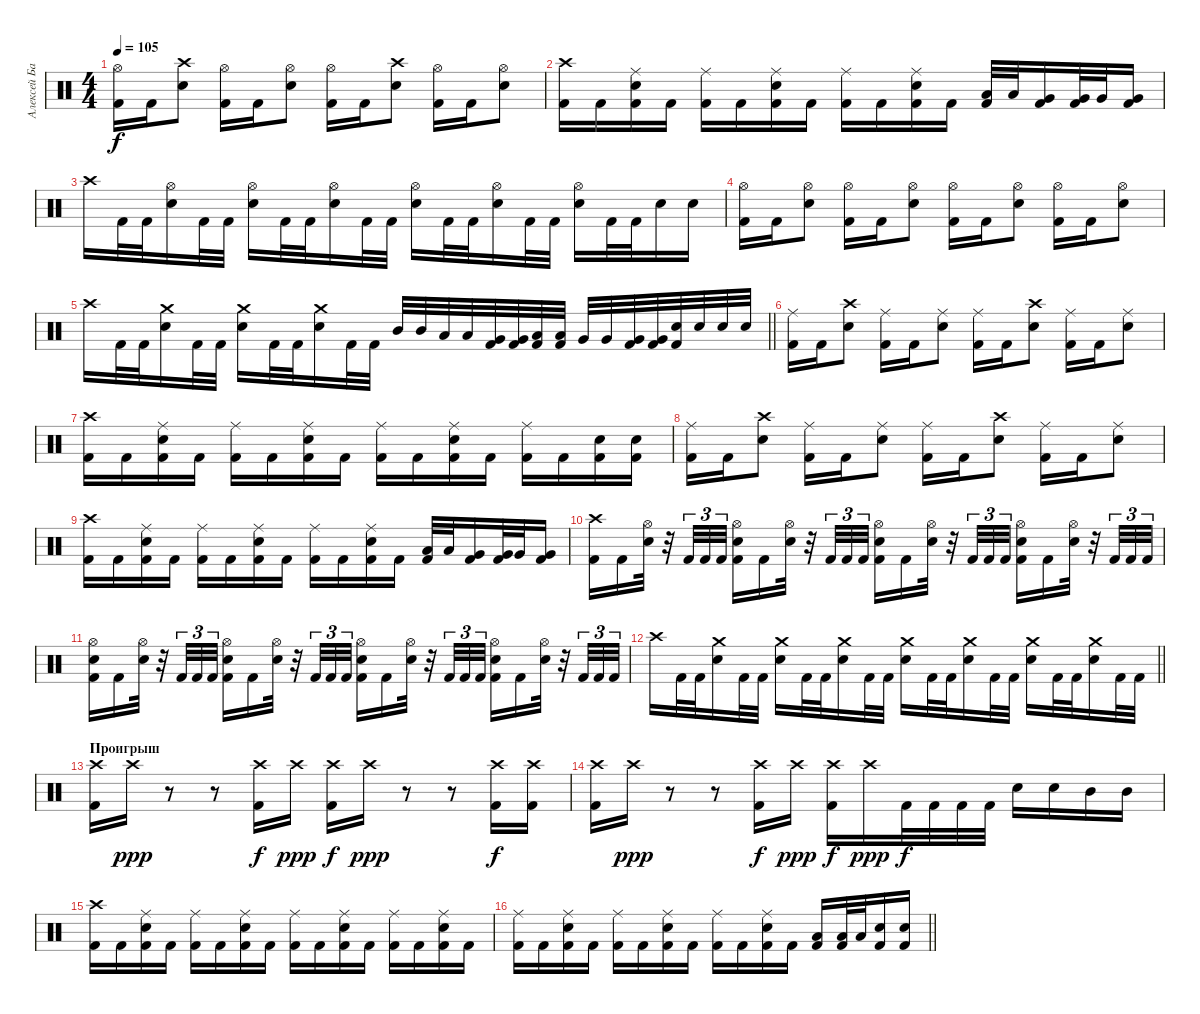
\track ("Алексей Барзилович" "Алексей Ба") {instrument percussion}
\staff {score}
\articulation defaults
\ts (4 4)
\tempo 105
\clef neutral
\ks c
("Hi-Hat (open)" "Kick (hit) 2").16{dy f} "Kick (hit) 2".16 ("Crash high (hit)" "Electric Snare (hit)").8 ("Hi-Hat (open)" "Kick (hit) 2").16 "Kick (hit) 2".16 ("Hi-Hat (open)" "Electric Snare (hit)").8 ("Hi-Hat (open)" "Kick (hit) 2").16 "Kick (hit) 2".16 ("Crash high (hit)" "Electric Snare (hit)").8 ("Hi-Hat (open)" "Kick (hit) 2").16 "Kick (hit) 2".16 ("Hi-Hat (open)" "Electric Snare (hit)").8 |
("Crash high (hit)" "Kick (hit) 2").16 "Kick (hit) 2".16 ("Ride (middle)" "Electric Snare (hit)" "Kick (hit) 2").16 "Kick (hit) 2".16 ("Ride (middle)" "Kick (hit) 2").16 "Kick (hit) 2".16 ("Ride (middle)" "Electric Snare (hit)" "Kick (hit) 2").16 "Kick (hit) 2".16 ("Ride (middle)" "Kick (hit) 2").16 "Kick (hit) 2".16 ("Ride (middle)" "Electric Snare (hit)" "Kick (hit) 2").16 "Kick (hit) 2".16 ("Low Tom (hit)" "Kick (hit) 2").32 "Low Tom (hit)".32 ("Very Low Tom (hit)" "Kick (hit) 2").16 ("Very Low Tom (hit)" "Kick (hit) 2").32 "Very Low Tom (hit)".32 ("Very Low Tom (hit)" "Kick (hit) 2").16 |
"Crash high (hit)".16 "Kick (hit) 2".32 "Kick (hit) 2".32 ("Hi-Hat (open)" "Electric Snare (hit)").16 "Kick (hit) 2".32 "Kick (hit) 2".32 ("Hi-Hat (open)" "Electric Snare (hit)").16 "Kick (hit) 2".32 "Kick (hit) 2".32 ("Hi-Hat (open)" "Electric Snare (hit)").16 "Kick (hit) 2".32 "Kick (hit) 2".32 ("Hi-Hat (open)" "Electric Snare (hit)").16 "Kick (hit) 2".32 "Kick (hit) 2".32 ("Hi-Hat (open)" "Electric Snare (hit)").16 "Kick (hit) 2".32 "Kick (hit) 2".32 ("Hi-Hat (open)" "Electric Snare (hit)").16 "Kick (hit) 2".32 "Kick (hit) 2".32 "Electric Snare (hit)".16 "Electric Snare (hit)".16 |
("Hi-Hat (open)" "Kick (hit) 2").16 "Kick (hit) 2".16 ("Hi-Hat (open)" "Electric Snare (hit)").8 ("Hi-Hat (open)" "Kick (hit) 2").16 "Kick (hit) 2".16 ("Hi-Hat (open)" "Electric Snare (hit)").8 ("Hi-Hat (open)" "Kick (hit) 2").16 "Kick (hit) 2".16 ("Hi-Hat (open)" "Electric Snare (hit)").8 ("Hi-Hat (open)" "Kick (hit) 2").16 "Kick (hit) 2".16 ("Hi-Hat (open)" "Electric Snare (hit)").8 |
\barLineRight lightlight "Crash high (hit)".16 "Kick (hit) 2".32 "Kick (hit) 2".32
("Crash medium (hit)" "Electric Snare (hit)").16 "Kick (hit) 2".32 "Kick (hit) 2".32 ("Crash medium (hit)" "Electric Snare (hit)").16 "Kick (hit) 2".32 "Kick (hit) 2".32 ("Crash medium (hit)" "Electric Snare (hit)").16 "Kick (hit) 2".32 "Kick (hit) 2".32 "Mid Tom (hit)".32 "Mid Tom (hit)".32 "Low Tom (hit)".32 "Low Tom (hit)".32 ("Very Low Tom (hit)" "Kick (hit) 2").32 ("Very Low Tom (hit)" "Kick (hit) 2").32 ("Low Tom (hit)" "Kick (hit) 2").32 ("Low Tom (hit)" "Kick (hit) 2").32 "Very Low Tom (hit)".32 "Very Low Tom (hit)".32 ("Very Low Tom (hit)" "Kick (hit) 2").32 ("Very Low Tom (hit)" "Kick (hit) 2").32 ("Electric Snare (hit)" "Kick (hit) 2").32 "Electric Snare (hit)".32 "Electric Snare (hit)".32 "Electric Snare (hit)".32 |
("Ride (middle)" "Kick (hit) 2").16 "Kick (hit) 2".16 ("Crash high (hit)" "Electric Snare (hit)").8 ("Ride (middle)" "Kick (hit) 2").16 "Kick (hit) 2".16 ("Ride (middle)" "Electric Snare (hit)").8 ("Ride (middle)" "Kick (hit) 2").16 "Kick (hit) 2".16 ("Crash high (hit)" "Electric Snare (hit)").8 ("Ride (middle)" "Kick (hit) 2").16 "Kick (hit) 2".16 ("Ride (middle)" "Electric Snare (hit)").8 |
("Crash high (hit)" "Kick (hit) 2").16 "Kick (hit) 2".16 ("Ride (middle)" "Electric Snare (hit)" "Kick (hit) 2").16 "Kick (hit) 2".16 ("Ride (middle)" "Kick (hit) 2").16 "Kick (hit) 2".16 ("Ride (middle)" "Electric Snare (hit)" "Kick (hit) 2").16 "Kick (hit) 2".16 ("Ride (middle)" "Kick (hit) 2").16 "Kick (hit) 2".16 ("Ride (middle)" "Electric Snare (hit)" "Kick (hit) 2").16 "Kick (hit) 2".16 ("Ride (middle)" "Kick (hit) 2").16 "Kick (hit) 2".16 ("Electric Snare (hit)" "Kick (hit) 2").16 ("Electric Snare (hit)" "Kick (hit) 2").16 |
("Ride (middle)" "Kick (hit) 2").16 "Kick (hit) 2".16 ("Crash high (hit)" "Electric Snare (hit)").8 ("Ride (middle)" "Kick (hit) 2").16 "Kick (hit) 2".16 ("Ride (middle)" "Electric Snare (hit)").8 ("Ride (middle)" "Kick (hit) 2").16 "Kick (hit) 2".16 ("Crash high (hit)" "Electric Snare (hit)").8 ("Ride (middle)" "Kick (hit) 2").16 "Kick (hit) 2".16 ("Ride (middle)" "Electric Snare (hit)").8 |
("Crash high (hit)" "Kick (hit) 2").16 "Kick (hit) 2".16 ("Ride (middle)" "Electric Snare (hit)" "Kick (hit) 2").16 "Kick (hit) 2".16 ("Ride (middle)" "Kick (hit) 2").16 "Kick (hit) 2".16 ("Ride (middle)" "Electric Snare (hit)" "Kick (hit) 2").16 "Kick (hit) 2".16 ("Ride (middle)" "Kick (hit) 2").16 "Kick (hit) 2".16 ("Ride (middle)" "Electric Snare (hit)" "Kick (hit) 2").16 "Kick (hit) 2".16 ("Low Tom (hit)" "Kick (hit) 2").32 "Low Tom (hit)".32 ("Very Low Tom (hit)" "Kick (hit) 2").16 ("Very Low Tom (hit)" "Kick (hit) 2").32 "Very Low Tom (hit)".32 ("Very Low Tom (hit)" "Kick (hit) 2").16 |
("Crash high (hit)" "Kick (hit) 2").16 "Kick (hit) 2".16 ("Hi-Hat (open)" "Electric Snare (hit)").32 r.32 "Kick (hit) 2".32{tu (3 2)} "Kick (hit) 2".32{tu (3 2)} "Kick (hit) 2".32{tu (3 2)} ("Hi-Hat (open)" "Electric Snare (hit)" "Kick (hit) 2").16 "Kick (hit) 2".16 ("Hi-Hat (open)" "Electric Snare (hit)").32 r.32 "Kick (hit) 2".32{tu (3 2)} "Kick (hit) 2".32{tu (3 2)} "Kick (hit) 2".32{tu (3 2)} ("Hi-Hat (open)" "Electric Snare (hit)" "Kick (hit) 2").16 "Kick (hit) 2".16 ("Hi-Hat (open)" "Electric Snare (hit)").32 r.32 "Kick (hit) 2".32{tu (3 2)} "Kick (hit) 2".32{tu (3 2)} "Kick (hit) 2".32{tu (3 2)} ("Hi-Hat (open)" "Electric Snare (hit)" "Kick (hit) 2").16 "Kick (hit) 2".16 ("Hi-Hat (open)" "Electric Snare (hit)").32 r.32 "Kick (hit) 2".32{tu (3 2)} "Kick (hit) 2".32{tu (3 2)} "Kick (hit) 2".32{tu (3 2)} |
("Hi-Hat (open)" "Electric Snare (hit)" "Kick (hit) 2").16 "Kick (hit) 2".16 ("Hi-Hat (open)" "Electric Snare (hit)").32 r.32 "Kick (hit) 2".32{tu (3 2)} "Kick (hit) 2".32{tu (3 2)} "Kick (hit) 2".32{tu (3 2)} ("Hi-Hat (open)" "Electric Snare (hit)" "Kick (hit) 2").16 "Kick (hit) 2".16 ("Hi-Hat (open)" "Electric Snare (hit)").32 r.32 "Kick (hit) 2".32{tu (3 2)} "Kick (hit) 2".32{tu (3 2)} "Kick (hit) 2".32{tu (3 2)} ("Hi-Hat (open)" "Electric Snare (hit)" "Kick (hit) 2").16 "Kick (hit) 2".16 ("Hi-Hat (open)" "Electric Snare (hit)").32 r.32 "Kick (hit) 2".32{tu (3 2)} "Kick (hit) 2".32{tu (3 2)} "Kick (hit) 2".32{tu (3 2)} ("Hi-Hat (open)" "Electric Snare (hit)" "Kick (hit) 2").16 "Kick (hit) 2".16 ("Hi-Hat (open)" "Electric Snare (hit)").32 r.32 "Kick (hit) 2".32{tu (3 2)} "Kick (hit) 2".32{tu (3 2)} "Kick (hit) 2".32{tu (3 2)} |
\barLineRight lightlight "Crash high (hit)".16 "Kick (hit) 2".32 "Kick (hit) 2".32
("Crash medium (hit)" "Electric Snare (hit)").16 "Kick (hit) 2".32 "Kick (hit) 2".32 ("Crash medium (hit)" "Electric Snare (hit)").16 "Kick (hit) 2".32 "Kick (hit) 2".32 ("Crash medium (hit)" "Electric Snare (hit)").16 "Kick (hit) 2".32 "Kick (hit) 2".32 ("Crash medium (hit)" "Electric Snare (hit)").16 "Kick (hit) 2".32 "Kick (hit) 2".32 ("Crash medium (hit)" "Electric Snare (hit)").16 "Kick (hit) 2".32 "Kick (hit) 2".32 ("Crash medium (hit)" "Electric Snare (hit)").16 "Kick (hit) 2".32 "Kick (hit) 2".32 ("Crash medium (hit)" "Electric Snare (hit)").16 "Kick (hit) 2".32 "Kick (hit) 2".32 |
\section ("" "Проигрыш")
("Crash high (hit)" "Kick (hit) 2").16 "Crash high (hit)".16{dy ppp} r.8 r.8 ("Crash high (hit)" "Kick (hit) 2").16{dy f} "Crash high (hit)".16{dy ppp} ("Crash high (hit)" "Kick (hit) 2").16{dy f} "Crash high (hit)".16{dy ppp} r.8 r.8 ("Crash high (hit)" "Kick (hit) 2").16{dy f} ("Crash high (hit)" "Kick (hit) 2").16 |
("Crash high (hit)" "Kick (hit) 2").16 "Crash high (hit)".16{dy ppp} r.8 r.8 ("Crash high (hit)" "Kick (hit) 2").16{dy f} "Crash high (hit)".16{dy ppp} ("Crash high (hit)" "Kick (hit) 2").16{dy f} "Crash high (hit)".16{dy ppp} "Kick (hit) 2".32{dy f} "Kick (hit) 2".32 "Kick (hit) 2".32 "Kick (hit) 2".32 "Electric Snare (hit)".16 "Electric Snare (hit)".16 "Mid Tom (hit)".16 "Mid Tom (hit)".16 |
("Crash high (hit)" "Kick (hit) 2").16 "Kick (hit) 2".16 ("Ride (middle)" "Electric Snare (hit)" "Kick (hit) 2").16 "Kick (hit) 2".16 ("Ride (middle)" "Kick (hit) 2").16 "Kick (hit) 2".16 ("Ride (middle)" "Electric Snare (hit)" "Kick (hit) 2").16 "Kick (hit) 2".16 ("Ride (middle)" "Kick (hit) 2").16 "Kick (hit) 2".16 ("Ride (middle)" "Electric Snare (hit)" "Kick (hit) 2").16 "Kick (hit) 2".16 ("Ride (middle)" "Kick (hit) 2").16 "Kick (hit) 2".16 ("Ride (middle)" "Electric Snare (hit)" "Kick (hit) 2").16 "Kick (hit) 2".16 |
\barLineRight lightlight
("Ride (middle)" "Kick (hit) 2").16 "Kick (hit) 2".16 ("Ride (middle)" "Electric Snare (hit)" "Kick (hit) 2").16 "Kick (hit) 2".16 ("Ride (middle)" "Kick (hit) 2").16 "Kick (hit) 2".16 ("Ride (middle)" "Electric Snare (hit)" "Kick (hit) 2").16 "Kick (hit) 2".16 ("Ride (middle)" "Kick (hit) 2").16 "Kick (hit) 2".16 ("Ride (middle)" "Electric Snare (hit)" "Kick (hit) 2").16 "Kick (hit) 2".16 ("Low Tom (hit)" "Kick (hit) 2").16 ("Low Tom (hit)" "Kick (hit) 2").32 "Low Tom (hit)".32 ("Electric Snare (hit)" "Kick (hit) 2").16 ("Electric Snare (hit)" "Kick (hit) 2").16
